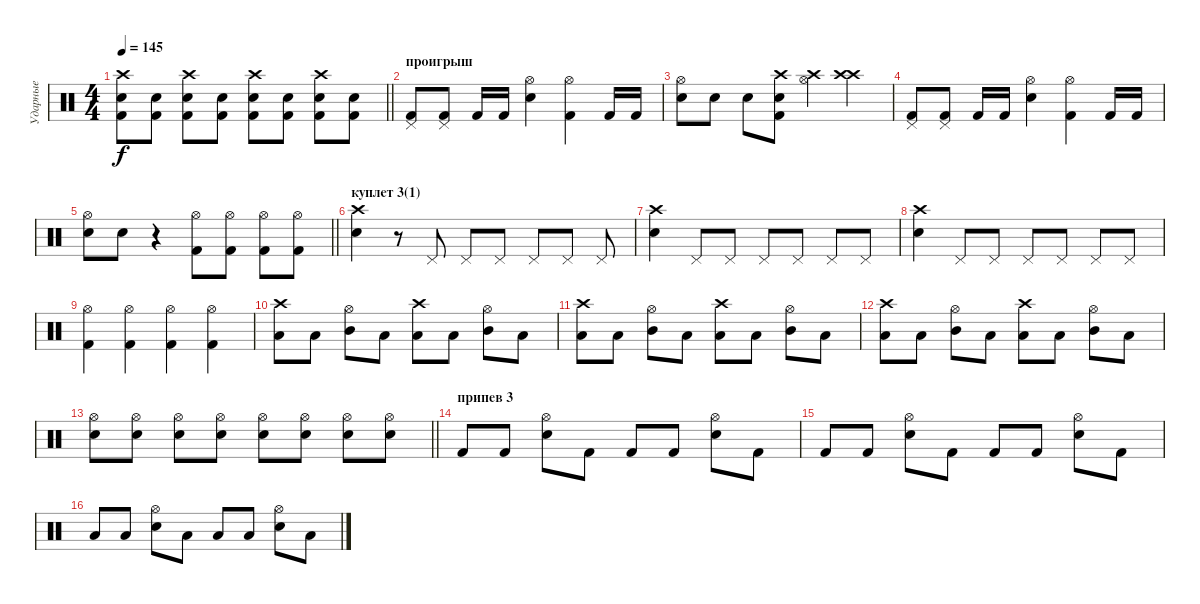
\track ("Ударные" "Ударные") {instrument percussion}
\staff {score}
\articulation defaults
\ts (4 4)
\tempo 145
\clef neutral
\barLineRight lightlight
\ks c
("Crash high (hit)" "Electric Snare (hit)" "Kick (hit) 2").8{dy f} ("Electric Snare (hit)" "Kick (hit) 2").8 ("Crash high (hit)" "Electric Snare (hit)" "Kick (hit) 2").8 ("Electric Snare (hit)" "Kick (hit) 2").8 ("Crash high (hit)" "Electric Snare (hit)" "Kick (hit) 2").8 ("Electric Snare (hit)" "Kick (hit) 2").8 ("Crash high (hit)" "Electric Snare (hit)" "Kick (hit) 2").8 ("Electric Snare (hit)" "Kick (hit) 2").8 |
\section ("" "проигрыш")
("Pedal Hi-Hat (hit)" "Kick (hit) 2").8 ("Pedal Hi-Hat (hit)" "Kick (hit) 2").8 "Kick (hit) 2".16 "Kick (hit) 2".16 ("Hi-Hat (open)" "Electric Snare (hit)").4 ("Hi-Hat (open)" "Kick (hit) 2").4 "Kick (hit) 2".16 "Kick (hit) 2".16 |
("Hi-Hat (open)" "Electric Snare (hit)").8 "Electric Snare (hit)".8 "Electric Snare (hit)".8 ("Crash high (hit)" "Electric Snare (hit)" "Kick (hit) 2").8 ("Hi-Hat (open)" "Crash high (hit)").4 ("Crash high (hit)" "Crash high (hit)").4 |
("Pedal Hi-Hat (hit)" "Kick (hit) 2").8 ("Pedal Hi-Hat (hit)" "Kick (hit) 2").8 "Kick (hit) 2".16 "Kick (hit) 2".16 ("Hi-Hat (open)" "Electric Snare (hit)").4 ("Hi-Hat (open)" "Kick (hit) 2").4 "Kick (hit) 2".16 "Kick (hit) 2".16 |
\barLineRight lightlight
("Hi-Hat (open)" "Electric Snare (hit)").8 "Electric Snare (hit)".8 r.4 ("Hi-Hat (open)" "Kick (hit) 2").8 ("Hi-Hat (open)" "Kick (hit) 2").8 ("Hi-Hat (open)" "Kick (hit) 2").8 ("Hi-Hat (open)" "Kick (hit) 2").8 |
\section ("" "куплет 3(1)")
("Crash high (hit)" "Electric Snare (hit)").4 r.8 "Pedal Hi-Hat (hit)".8 "Pedal Hi-Hat (hit)".8 "Pedal Hi-Hat (hit)".8 "Pedal Hi-Hat (hit)".8 "Pedal Hi-Hat (hit)".8 "Pedal Hi-Hat (hit)".8 |
("Crash high (hit)" "Electric Snare (hit)").4 "Pedal Hi-Hat (hit)".8 "Pedal Hi-Hat (hit)".8 "Pedal Hi-Hat (hit)".8 "Pedal Hi-Hat (hit)".8 "Pedal Hi-Hat (hit)".8 "Pedal Hi-Hat (hit)".8 |
("Crash high (hit)" "Electric Snare (hit)").4 "Pedal Hi-Hat (hit)".8 "Pedal Hi-Hat (hit)".8 "Pedal Hi-Hat (hit)".8 "Pedal Hi-Hat (hit)".8 "Pedal Hi-Hat (hit)".8 "Pedal Hi-Hat (hit)".8 |
("Hi-Hat (open)" "Kick (hit) 2").4 ("Hi-Hat (open)" "Kick (hit) 2").4 ("Hi-Hat (open)" "Kick (hit) 2").4 ("Hi-Hat (open)" "Kick (hit) 2").4 |
("Crash high (hit)" "Low Tom (hit)").8 "Low Tom (hit)".8 ("Hi-Hat (open)" "Mid Tom (hit)").8 "Low Tom (hit)".8 ("Crash high (hit)" "Low Tom (hit)").8 "Low Tom (hit)".8 ("Hi-Hat (open)" "Mid Tom (hit)").8 "Low Tom (hit)".8 |
("Crash high (hit)" "Low Tom (hit)").8 "Low Tom (hit)".8 ("Hi-Hat (open)" "Mid Tom (hit)").8 "Low Tom (hit)".8 ("Crash high (hit)" "Low Tom (hit)").8 "Low Tom (hit)".8 ("Hi-Hat (open)" "Mid Tom (hit)").8 "Low Tom (hit)".8 |
("Crash high (hit)" "Low Tom (hit)").8 "Low Tom (hit)".8 ("Hi-Hat (open)" "Mid Tom (hit)").8 "Low Tom (hit)".8 ("Crash high (hit)" "Low Tom (hit)").8 "Low Tom (hit)".8 ("Hi-Hat (open)" "Mid Tom (hit)").8 "Low Tom (hit)".8 |
\barLineRight lightlight
("Hi-Hat (open)" "Electric Snare (hit)").8 ("Hi-Hat (open)" "Electric Snare (hit)").8 ("Hi-Hat (open)" "Electric Snare (hit)").8 ("Hi-Hat (open)" "Electric Snare (hit)").8 ("Hi-Hat (open)" "Electric Snare (hit)").8 ("Hi-Hat (open)" "Electric Snare (hit)").8 ("Hi-Hat (open)" "Electric Snare (hit)").8 ("Hi-Hat (open)" "Electric Snare (hit)").8 |
\section ("" "припев 3")
"Kick (hit) 2".8 "Kick (hit) 2".8 ("Hi-Hat (open)" "Electric Snare (hit)").8 "Kick (hit) 2".8 "Kick (hit) 2".8 "Kick (hit) 2".8 ("Hi-Hat (open)" "Electric Snare (hit)").8 "Kick (hit) 2".8 |
"Kick (hit) 2".8 "Kick (hit) 2".8 ("Hi-Hat (open)" "Electric Snare (hit)").8 "Kick (hit) 2".8 "Kick (hit) 2".8 "Kick (hit) 2".8 ("Hi-Hat (open)" "Electric Snare (hit)").8 "Kick (hit) 2".8 |
"Low Tom (hit)".8 "Low Tom (hit)".8 ("Hi-Hat (open)" "Electric Snare (hit)").8 "Low Tom (hit)".8 "Low Tom (hit)".8 "Low Tom (hit)".8 ("Hi-Hat (open)" "Electric Snare (hit)").8 "Low Tom (hit)".8
